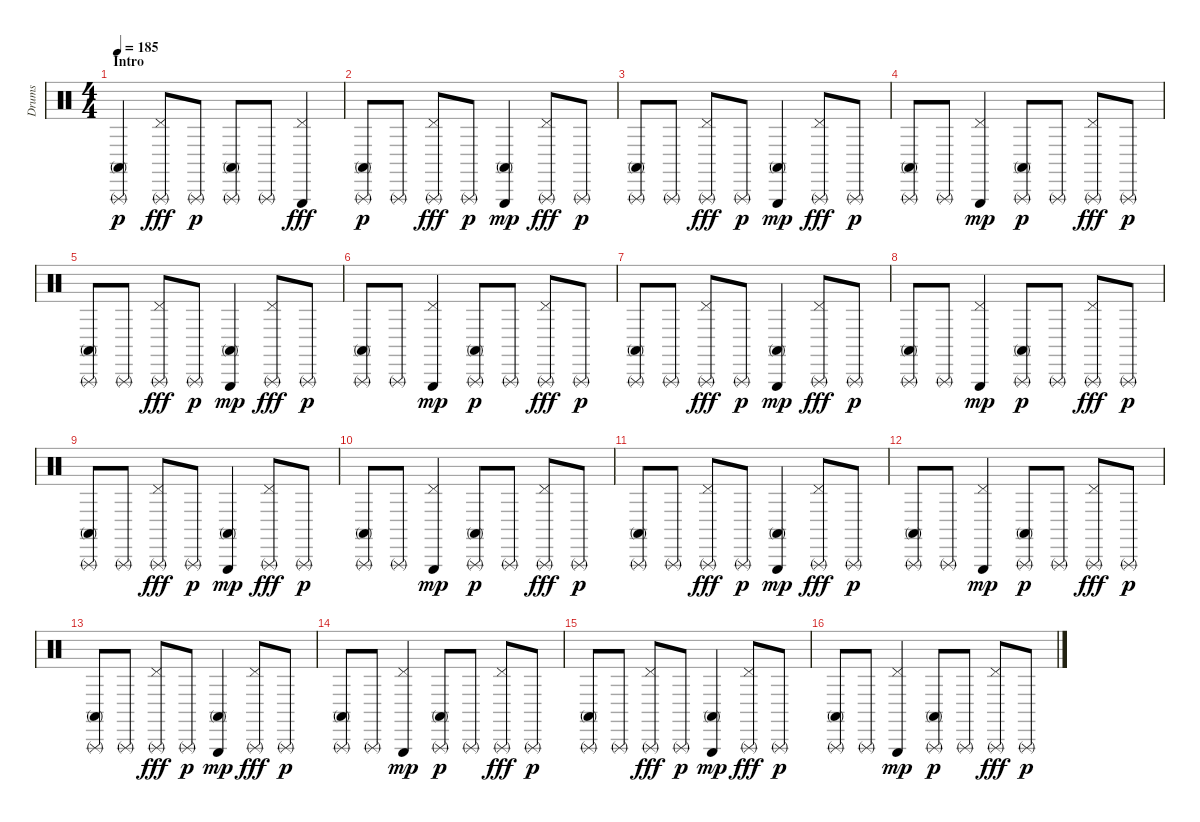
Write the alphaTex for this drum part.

\track ("Drums" "Drums") {instrument percussion}
\staff {score}
\articulation defaults
\ts (4 4)
\section ("" "Intro")
\tempo 185
\clef neutral
\ks c
("Triangle (rnute)" "Conga high (mute)").4{dy p} ("Triangle (rnute)" "Pedal Hi-Hat (hit)").8{dy fff} "Triangle (rnute)".8{dy p} ("Triangle (rnute)" "Conga high (mute)").8 "Triangle (rnute)".8 ("Triangle (hit)" "Pedal Hi-Hat (hit)").4{dy fff} |
("Triangle (rnute)" "Conga high (mute)").8{dy p} "Triangle (rnute)".8 ("Triangle (rnute)" "Pedal Hi-Hat (hit)").8{dy fff} "Triangle (rnute)".8{dy p} ("Triangle (hit)" "Conga high (mute)").4{dy mp} ("Triangle (rnute)" "Pedal Hi-Hat (hit)").8{dy fff} "Triangle (rnute)".8{dy p} |
("Triangle (rnute)" "Conga high (mute)").8 "Triangle (rnute)".8 ("Triangle (rnute)" "Pedal Hi-Hat (hit)").8{dy fff} "Triangle (rnute)".8{dy p} ("Conga high (mute)" "Triangle (hit)").4{dy mp} ("Triangle (rnute)" "Pedal Hi-Hat (hit)").8{dy fff} "Triangle (rnute)".8{dy p} |
("Triangle (rnute)" "Conga high (mute)").8 "Triangle (rnute)".8 ("Pedal Hi-Hat (hit)" "Triangle (hit)").4{dy mp} ("Conga high (mute)" "Triangle (rnute)").8{dy p} "Triangle (rnute)".8 ("Triangle (rnute)" "Pedal Hi-Hat (hit)").8{dy fff} "Triangle (rnute)".8{dy p} |
("Triangle (rnute)" "Conga high (mute)").8 "Triangle (rnute)".8 ("Triangle (rnute)" "Pedal Hi-Hat (hit)").8{dy fff} "Triangle (rnute)".8{dy p} ("Conga high (mute)" "Triangle (hit)").4{dy mp} ("Triangle (rnute)" "Pedal Hi-Hat (hit)").8{dy fff} "Triangle (rnute)".8{dy p} |
("Triangle (rnute)" "Conga high (mute)").8 "Triangle (rnute)".8 ("Pedal Hi-Hat (hit)" "Triangle (hit)").4{dy mp} ("Conga high (mute)" "Triangle (rnute)").8{dy p} "Triangle (rnute)".8 ("Triangle (rnute)" "Pedal Hi-Hat (hit)").8{dy fff} "Triangle (rnute)".8{dy p} |
("Triangle (rnute)" "Conga high (mute)").8 "Triangle (rnute)".8 ("Triangle (rnute)" "Pedal Hi-Hat (hit)").8{dy fff} "Triangle (rnute)".8{dy p} ("Conga high (mute)" "Triangle (hit)").4{dy mp} ("Triangle (rnute)" "Pedal Hi-Hat (hit)").8{dy fff} "Triangle (rnute)".8{dy p} |
("Triangle (rnute)" "Conga high (mute)").8 "Triangle (rnute)".8 ("Pedal Hi-Hat (hit)" "Triangle (hit)").4{dy mp} ("Conga high (mute)" "Triangle (rnute)").8{dy p} "Triangle (rnute)".8 ("Triangle (rnute)" "Pedal Hi-Hat (hit)").8{dy fff} "Triangle (rnute)".8{dy p} |
("Triangle (rnute)" "Conga high (mute)").8 "Triangle (rnute)".8 ("Triangle (rnute)" "Pedal Hi-Hat (hit)").8{dy fff} "Triangle (rnute)".8{dy p} ("Conga high (mute)" "Triangle (hit)").4{dy mp} ("Triangle (rnute)" "Pedal Hi-Hat (hit)").8{dy fff} "Triangle (rnute)".8{dy p} |
("Triangle (rnute)" "Conga high (mute)").8 "Triangle (rnute)".8 ("Pedal Hi-Hat (hit)" "Triangle (hit)").4{dy mp} ("Conga high (mute)" "Triangle (rnute)").8{dy p} "Triangle (rnute)".8 ("Triangle (rnute)" "Pedal Hi-Hat (hit)").8{dy fff} "Triangle (rnute)".8{dy p} |
("Triangle (rnute)" "Conga high (mute)").8 "Triangle (rnute)".8 ("Triangle (rnute)" "Pedal Hi-Hat (hit)").8{dy fff} "Triangle (rnute)".8{dy p} ("Conga high (mute)" "Triangle (hit)").4{dy mp} ("Triangle (rnute)" "Pedal Hi-Hat (hit)").8{dy fff} "Triangle (rnute)".8{dy p} |
("Triangle (rnute)" "Conga high (mute)").8 "Triangle (rnute)".8 ("Pedal Hi-Hat (hit)" "Triangle (hit)").4{dy mp} ("Conga high (mute)" "Triangle (rnute)").8{dy p} "Triangle (rnute)".8 ("Triangle (rnute)" "Pedal Hi-Hat (hit)").8{dy fff} "Triangle (rnute)".8{dy p} |
("Triangle (rnute)" "Conga high (mute)").8 "Triangle (rnute)".8 ("Triangle (rnute)" "Pedal Hi-Hat (hit)").8{dy fff} "Triangle (rnute)".8{dy p} ("Conga high (mute)" "Triangle (hit)").4{dy mp} ("Triangle (rnute)" "Pedal Hi-Hat (hit)").8{dy fff} "Triangle (rnute)".8{dy p} |
("Triangle (rnute)" "Conga high (mute)").8 "Triangle (rnute)".8 ("Pedal Hi-Hat (hit)" "Triangle (hit)").4{dy mp} ("Conga high (mute)" "Triangle (rnute)").8{dy p} "Triangle (rnute)".8 ("Triangle (rnute)" "Pedal Hi-Hat (hit)").8{dy fff} "Triangle (rnute)".8{dy p} |
("Triangle (rnute)" "Conga high (mute)").8 "Triangle (rnute)".8 ("Triangle (rnute)" "Pedal Hi-Hat (hit)").8{dy fff} "Triangle (rnute)".8{dy p} ("Conga high (mute)" "Triangle (hit)").4{dy mp} ("Triangle (rnute)" "Pedal Hi-Hat (hit)").8{dy fff} "Triangle (rnute)".8{dy p} |
("Triangle (rnute)" "Conga high (mute)").8 "Triangle (rnute)".8 ("Pedal Hi-Hat (hit)" "Triangle (hit)").4{dy mp} ("Conga high (mute)" "Triangle (rnute)").8{dy p} "Triangle (rnute)".8 ("Triangle (rnute)" "Pedal Hi-Hat (hit)").8{dy fff} "Triangle (rnute)".8{dy p}
